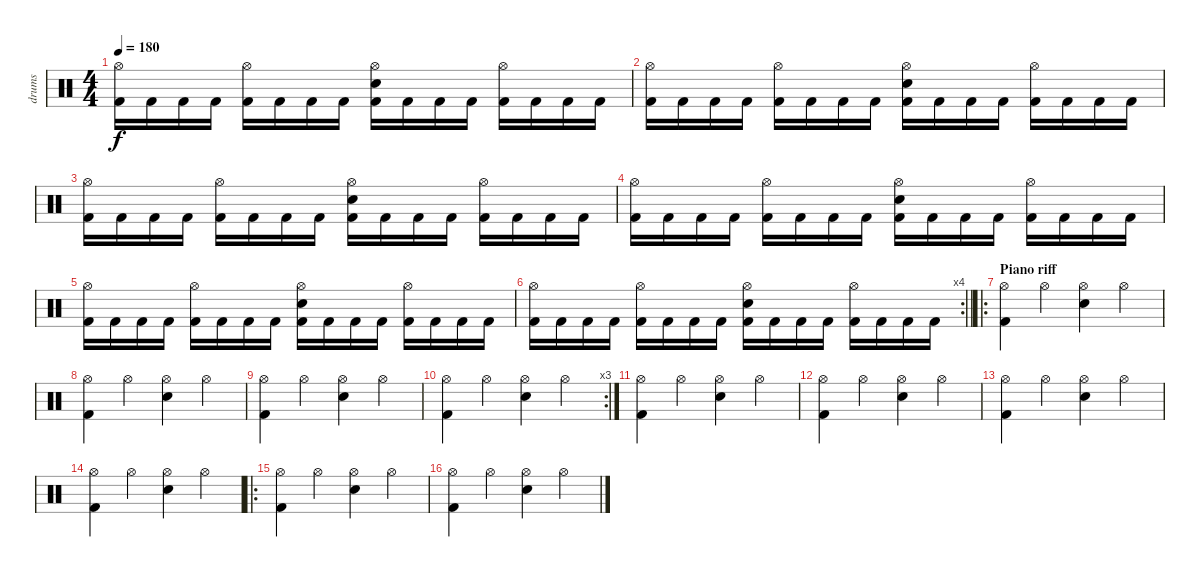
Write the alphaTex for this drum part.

\track ("drums" "drums") {instrument percussion}
\staff {score}
\articulation defaults
\ts (4 4)
\tempo 180
\clef neutral
\ks c
("Hi-Hat (open)" "Kick (hit) 2").16{dy f} "Kick (hit) 2".16 "Kick (hit) 2".16 "Kick (hit) 2".16 ("Hi-Hat (open)" "Kick (hit) 2").16 "Kick (hit) 2".16 "Kick (hit) 2".16 "Kick (hit) 2".16 ("Hi-Hat (open)" "Snare (hit) 2" "Kick (hit) 2").16 "Kick (hit) 2".16 "Kick (hit) 2".16 "Kick (hit) 2".16 ("Hi-Hat (open)" "Kick (hit) 2").16 "Kick (hit) 2".16 "Kick (hit) 2".16 "Kick (hit) 2".16 |
("Hi-Hat (open)" "Kick (hit) 2").16 "Kick (hit) 2".16 "Kick (hit) 2".16 "Kick (hit) 2".16 ("Hi-Hat (open)" "Kick (hit) 2").16 "Kick (hit) 2".16 "Kick (hit) 2".16 "Kick (hit) 2".16 ("Hi-Hat (open)" "Snare (hit) 2" "Kick (hit) 2").16 "Kick (hit) 2".16 "Kick (hit) 2".16 "Kick (hit) 2".16 ("Hi-Hat (open)" "Kick (hit) 2").16 "Kick (hit) 2".16 "Kick (hit) 2".16 "Kick (hit) 2".16 |
("Hi-Hat (open)" "Kick (hit) 2").16 "Kick (hit) 2".16 "Kick (hit) 2".16 "Kick (hit) 2".16 ("Hi-Hat (open)" "Kick (hit) 2").16 "Kick (hit) 2".16 "Kick (hit) 2".16 "Kick (hit) 2".16 ("Hi-Hat (open)" "Snare (hit) 2" "Kick (hit) 2").16 "Kick (hit) 2".16 "Kick (hit) 2".16 "Kick (hit) 2".16 ("Hi-Hat (open)" "Kick (hit) 2").16 "Kick (hit) 2".16 "Kick (hit) 2".16 "Kick (hit) 2".16 |
("Hi-Hat (open)" "Kick (hit) 2").16 "Kick (hit) 2".16 "Kick (hit) 2".16 "Kick (hit) 2".16 ("Hi-Hat (open)" "Kick (hit) 2").16 "Kick (hit) 2".16 "Kick (hit) 2".16 "Kick (hit) 2".16 ("Hi-Hat (open)" "Snare (hit) 2" "Kick (hit) 2").16 "Kick (hit) 2".16 "Kick (hit) 2".16 "Kick (hit) 2".16 ("Hi-Hat (open)" "Kick (hit) 2").16 "Kick (hit) 2".16 "Kick (hit) 2".16 "Kick (hit) 2".16 |
("Hi-Hat (open)" "Kick (hit) 2").16 "Kick (hit) 2".16 "Kick (hit) 2".16 "Kick (hit) 2".16 ("Hi-Hat (open)" "Kick (hit) 2").16 "Kick (hit) 2".16 "Kick (hit) 2".16 "Kick (hit) 2".16 ("Hi-Hat (open)" "Snare (hit) 2" "Kick (hit) 2").16 "Kick (hit) 2".16 "Kick (hit) 2".16 "Kick (hit) 2".16 ("Hi-Hat (open)" "Kick (hit) 2").16 "Kick (hit) 2".16 "Kick (hit) 2".16 "Kick (hit) 2".16 |
\rc 4
\barLineRight lightlight
("Hi-Hat (open)" "Kick (hit) 2").16 "Kick (hit) 2".16 "Kick (hit) 2".16 "Kick (hit) 2".16 ("Hi-Hat (open)" "Kick (hit) 2").16 "Kick (hit) 2".16 "Kick (hit) 2".16 "Kick (hit) 2".16 ("Hi-Hat (open)" "Snare (hit) 2" "Kick (hit) 2").16 "Kick (hit) 2".16 "Kick (hit) 2".16 "Kick (hit) 2".16 ("Hi-Hat (open)" "Kick (hit) 2").16 "Kick (hit) 2".16 "Kick (hit) 2".16 "Kick (hit) 2".16 |
\ro
\section ("" "Piano riff")
("Hi-Hat (open)" "Kick (hit) 2").4 "Hi-Hat (open)".4 ("Hi-Hat (open)" "Snare (hit) 2").4 "Hi-Hat (open)".4 |
("Hi-Hat (open)" "Kick (hit) 2").4 "Hi-Hat (open)".4 ("Hi-Hat (open)" "Snare (hit) 2").4 "Hi-Hat (open)".4 |
("Hi-Hat (open)" "Kick (hit) 2").4 "Hi-Hat (open)".4 ("Hi-Hat (open)" "Snare (hit) 2").4 "Hi-Hat (open)".4 |
\rc 3
("Hi-Hat (open)" "Kick (hit) 2").4 "Hi-Hat (open)".4 ("Hi-Hat (open)" "Snare (hit) 2").4 "Hi-Hat (open)".4 |
("Hi-Hat (open)" "Kick (hit) 2").4 "Hi-Hat (open)".4 ("Hi-Hat (open)" "Snare (hit) 2").4 "Hi-Hat (open)".4 |
("Hi-Hat (open)" "Kick (hit) 2").4 "Hi-Hat (open)".4 ("Hi-Hat (open)" "Snare (hit) 2").4 "Hi-Hat (open)".4 |
("Hi-Hat (open)" "Kick (hit) 2").4 "Hi-Hat (open)".4 ("Hi-Hat (open)" "Snare (hit) 2").4 "Hi-Hat (open)".4 |
("Hi-Hat (open)" "Kick (hit) 2").4 "Hi-Hat (open)".4 ("Hi-Hat (open)" "Snare (hit) 2").4 "Hi-Hat (open)".4 |
\ro
("Hi-Hat (open)" "Kick (hit) 2").4 "Hi-Hat (open)".4 ("Hi-Hat (open)" "Snare (hit) 2").4 "Hi-Hat (open)".4 |
("Hi-Hat (open)" "Kick (hit) 2").4 "Hi-Hat (open)".4 ("Hi-Hat (open)" "Snare (hit) 2").4 "Hi-Hat (open)".4
